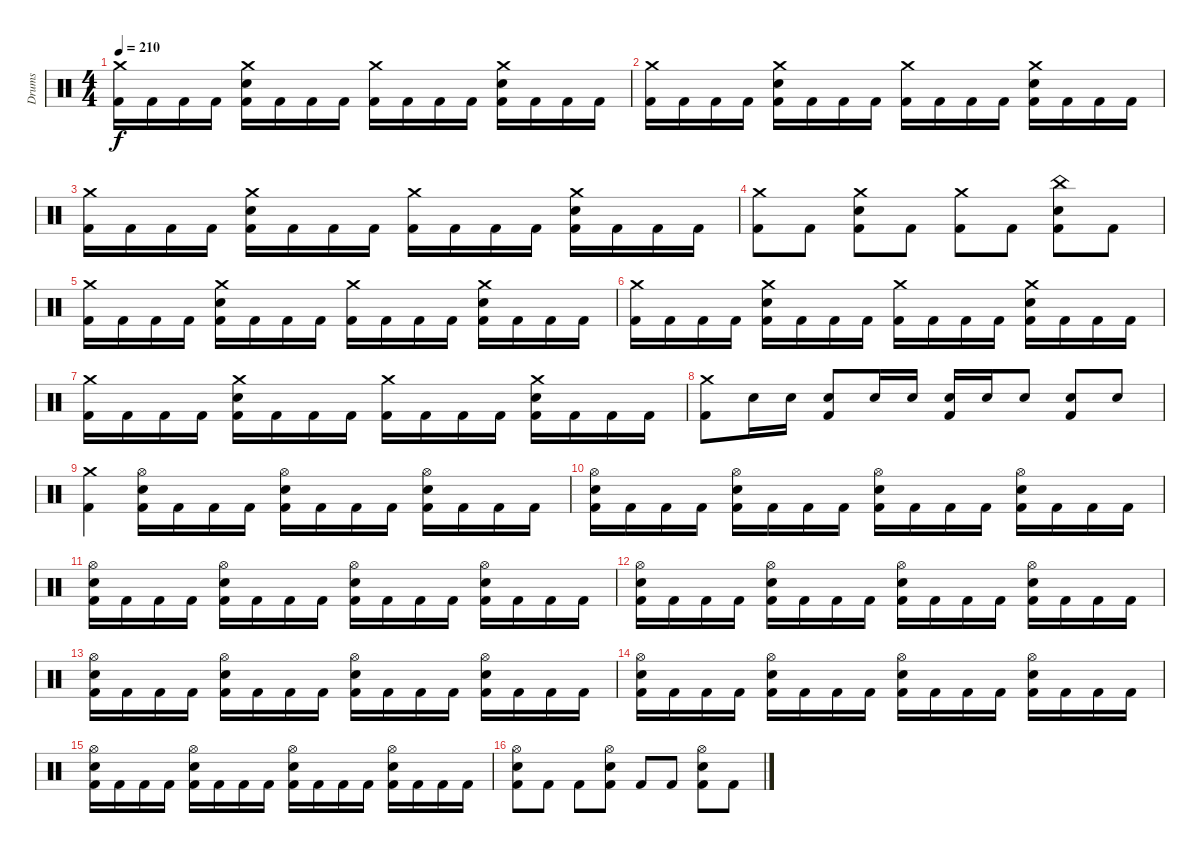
\track ("Drums" "Drums") {instrument percussion}
\staff {score}
\articulation defaults
\ts (4 4)
\tempo 210
\clef neutral
\ks c
("Crash medium (hit)" "Kick (hit) 2").16{dy f} "Kick (hit) 2".16 "Kick (hit) 2".16 "Kick (hit) 2".16 ("Crash medium (hit)" "Electric Snare (hit)" "Kick (hit) 2").16 "Kick (hit) 2".16 "Kick (hit) 2".16 "Kick (hit) 2".16 ("Crash medium (hit)" "Kick (hit) 2").16 "Kick (hit) 2".16 "Kick (hit) 2".16 "Kick (hit) 2".16 ("Crash medium (hit)" "Electric Snare (hit)" "Kick (hit) 2").16 "Kick (hit) 2".16 "Kick (hit) 2".16 "Kick (hit) 2".16 |
("Crash medium (hit)" "Kick (hit) 2").16 "Kick (hit) 2".16 "Kick (hit) 2".16 "Kick (hit) 2".16 ("Crash medium (hit)" "Electric Snare (hit)" "Kick (hit) 2").16 "Kick (hit) 2".16 "Kick (hit) 2".16 "Kick (hit) 2".16 ("Crash medium (hit)" "Kick (hit) 2").16 "Kick (hit) 2".16 "Kick (hit) 2".16 "Kick (hit) 2".16 ("Crash medium (hit)" "Electric Snare (hit)" "Kick (hit) 2").16 "Kick (hit) 2".16 "Kick (hit) 2".16 "Kick (hit) 2".16 |
("Crash medium (hit)" "Kick (hit) 2").16 "Kick (hit) 2".16 "Kick (hit) 2".16 "Kick (hit) 2".16 ("Crash medium (hit)" "Electric Snare (hit)" "Kick (hit) 2").16 "Kick (hit) 2".16 "Kick (hit) 2".16 "Kick (hit) 2".16 ("Crash medium (hit)" "Kick (hit) 2").16 "Kick (hit) 2".16 "Kick (hit) 2".16 "Kick (hit) 2".16 ("Crash medium (hit)" "Electric Snare (hit)" "Kick (hit) 2").16 "Kick (hit) 2".16 "Kick (hit) 2".16 "Kick (hit) 2".16 |
("Crash medium (hit)" "Kick (hit) 2").8 "Kick (hit) 2".8 ("Crash medium (hit)" "Electric Snare (hit)" "Kick (hit) 2").8 "Kick (hit) 2".8 ("Crash medium (hit)" "Kick (hit) 2").8 "Kick (hit) 2".8 ("China (hit)" "Electric Snare (hit)" "Kick (hit) 2").8 "Kick (hit) 2".8 |
("Crash medium (hit)" "Kick (hit) 2").16 "Kick (hit) 2".16 "Kick (hit) 2".16 "Kick (hit) 2".16 ("Crash medium (hit)" "Electric Snare (hit)" "Kick (hit) 2").16 "Kick (hit) 2".16 "Kick (hit) 2".16 "Kick (hit) 2".16 ("Crash medium (hit)" "Kick (hit) 2").16 "Kick (hit) 2".16 "Kick (hit) 2".16 "Kick (hit) 2".16 ("Crash medium (hit)" "Electric Snare (hit)" "Kick (hit) 2").16 "Kick (hit) 2".16 "Kick (hit) 2".16 "Kick (hit) 2".16 |
("Crash medium (hit)" "Kick (hit) 2").16 "Kick (hit) 2".16 "Kick (hit) 2".16 "Kick (hit) 2".16 ("Crash medium (hit)" "Electric Snare (hit)" "Kick (hit) 2").16 "Kick (hit) 2".16 "Kick (hit) 2".16 "Kick (hit) 2".16 ("Crash medium (hit)" "Kick (hit) 2").16 "Kick (hit) 2".16 "Kick (hit) 2".16 "Kick (hit) 2".16 ("Crash medium (hit)" "Electric Snare (hit)" "Kick (hit) 2").16 "Kick (hit) 2".16 "Kick (hit) 2".16 "Kick (hit) 2".16 |
("Crash medium (hit)" "Kick (hit) 2").16 "Kick (hit) 2".16 "Kick (hit) 2".16 "Kick (hit) 2".16 ("Crash medium (hit)" "Electric Snare (hit)" "Kick (hit) 2").16 "Kick (hit) 2".16 "Kick (hit) 2".16 "Kick (hit) 2".16 ("Crash medium (hit)" "Kick (hit) 2").16 "Kick (hit) 2".16 "Kick (hit) 2".16 "Kick (hit) 2".16 ("Crash medium (hit)" "Electric Snare (hit)" "Kick (hit) 2").16 "Kick (hit) 2".16 "Kick (hit) 2".16 "Kick (hit) 2".16 |
("Crash medium (hit)" "Kick (hit) 2").8 "Electric Snare (hit)".16 "Electric Snare (hit)".16 ("Electric Snare (hit)" "Kick (hit) 2").8 "Electric Snare (hit)".16 "Electric Snare (hit)".16 ("Electric Snare (hit)" "Kick (hit) 2").16 "Electric Snare (hit)".16 "Electric Snare (hit)".8 ("Electric Snare (hit)" "Kick (hit) 2").8 "Electric Snare (hit)".8 |
("Crash medium (hit)" "Kick (hit) 2").4 ("Hi-Hat (open)" "Electric Snare (hit)" "Kick (hit) 2").16 "Kick (hit) 2".16 "Kick (hit) 2".16 "Kick (hit) 2".16 ("Hi-Hat (open)" "Electric Snare (hit)" "Kick (hit) 2").16 "Kick (hit) 2".16 "Kick (hit) 2".16 "Kick (hit) 2".16 ("Hi-Hat (open)" "Electric Snare (hit)" "Kick (hit) 2").16 "Kick (hit) 2".16 "Kick (hit) 2".16 "Kick (hit) 2".16 |
("Hi-Hat (open)" "Electric Snare (hit)" "Kick (hit) 2").16 "Kick (hit) 2".16 "Kick (hit) 2".16 "Kick (hit) 2".16 ("Hi-Hat (open)" "Electric Snare (hit)" "Kick (hit) 2").16 "Kick (hit) 2".16 "Kick (hit) 2".16 "Kick (hit) 2".16 ("Hi-Hat (open)" "Electric Snare (hit)" "Kick (hit) 2").16 "Kick (hit) 2".16 "Kick (hit) 2".16 "Kick (hit) 2".16 ("Hi-Hat (open)" "Electric Snare (hit)" "Kick (hit) 2").16 "Kick (hit) 2".16 "Kick (hit) 2".16 "Kick (hit) 2".16 |
("Hi-Hat (open)" "Electric Snare (hit)" "Kick (hit) 2").16 "Kick (hit) 2".16 "Kick (hit) 2".16 "Kick (hit) 2".16 ("Hi-Hat (open)" "Electric Snare (hit)" "Kick (hit) 2").16 "Kick (hit) 2".16 "Kick (hit) 2".16 "Kick (hit) 2".16 ("Hi-Hat (open)" "Electric Snare (hit)" "Kick (hit) 2").16 "Kick (hit) 2".16 "Kick (hit) 2".16 "Kick (hit) 2".16 ("Hi-Hat (open)" "Electric Snare (hit)" "Kick (hit) 2").16 "Kick (hit) 2".16 "Kick (hit) 2".16 "Kick (hit) 2".16 |
("Hi-Hat (open)" "Electric Snare (hit)" "Kick (hit) 2").16 "Kick (hit) 2".16 "Kick (hit) 2".16 "Kick (hit) 2".16 ("Hi-Hat (open)" "Electric Snare (hit)" "Kick (hit) 2").16 "Kick (hit) 2".16 "Kick (hit) 2".16 "Kick (hit) 2".16 ("Hi-Hat (open)" "Electric Snare (hit)" "Kick (hit) 2").16 "Kick (hit) 2".16 "Kick (hit) 2".16 "Kick (hit) 2".16 ("Hi-Hat (open)" "Electric Snare (hit)" "Kick (hit) 2").16 "Kick (hit) 2".16 "Kick (hit) 2".16 "Kick (hit) 2".16 |
("Hi-Hat (open)" "Electric Snare (hit)" "Kick (hit) 2").16 "Kick (hit) 2".16 "Kick (hit) 2".16 "Kick (hit) 2".16 ("Hi-Hat (open)" "Electric Snare (hit)" "Kick (hit) 2").16 "Kick (hit) 2".16 "Kick (hit) 2".16 "Kick (hit) 2".16 ("Hi-Hat (open)" "Electric Snare (hit)" "Kick (hit) 2").16 "Kick (hit) 2".16 "Kick (hit) 2".16 "Kick (hit) 2".16 ("Hi-Hat (open)" "Electric Snare (hit)" "Kick (hit) 2").16 "Kick (hit) 2".16 "Kick (hit) 2".16 "Kick (hit) 2".16 |
("Hi-Hat (open)" "Electric Snare (hit)" "Kick (hit) 2").16 "Kick (hit) 2".16 "Kick (hit) 2".16 "Kick (hit) 2".16 ("Hi-Hat (open)" "Electric Snare (hit)" "Kick (hit) 2").16 "Kick (hit) 2".16 "Kick (hit) 2".16 "Kick (hit) 2".16 ("Hi-Hat (open)" "Electric Snare (hit)" "Kick (hit) 2").16 "Kick (hit) 2".16 "Kick (hit) 2".16 "Kick (hit) 2".16 ("Hi-Hat (open)" "Electric Snare (hit)" "Kick (hit) 2").16 "Kick (hit) 2".16 "Kick (hit) 2".16 "Kick (hit) 2".16 |
("Hi-Hat (open)" "Electric Snare (hit)" "Kick (hit) 2").16 "Kick (hit) 2".16 "Kick (hit) 2".16 "Kick (hit) 2".16 ("Hi-Hat (open)" "Electric Snare (hit)" "Kick (hit) 2").16 "Kick (hit) 2".16 "Kick (hit) 2".16 "Kick (hit) 2".16 ("Hi-Hat (open)" "Electric Snare (hit)" "Kick (hit) 2").16 "Kick (hit) 2".16 "Kick (hit) 2".16 "Kick (hit) 2".16 ("Hi-Hat (open)" "Electric Snare (hit)" "Kick (hit) 2").16 "Kick (hit) 2".16 "Kick (hit) 2".16 "Kick (hit) 2".16 |
("Hi-Hat (open)" "Electric Snare (hit)" "Kick (hit) 2").8 "Kick (hit) 2".8 "Kick (hit) 2".8 ("Hi-Hat (open)" "Electric Snare (hit)" "Kick (hit) 2").8 "Kick (hit) 2".8 "Kick (hit) 2".8 ("Hi-Hat (open)" "Electric Snare (hit)" "Kick (hit) 2").8 "Kick (hit) 2".8
